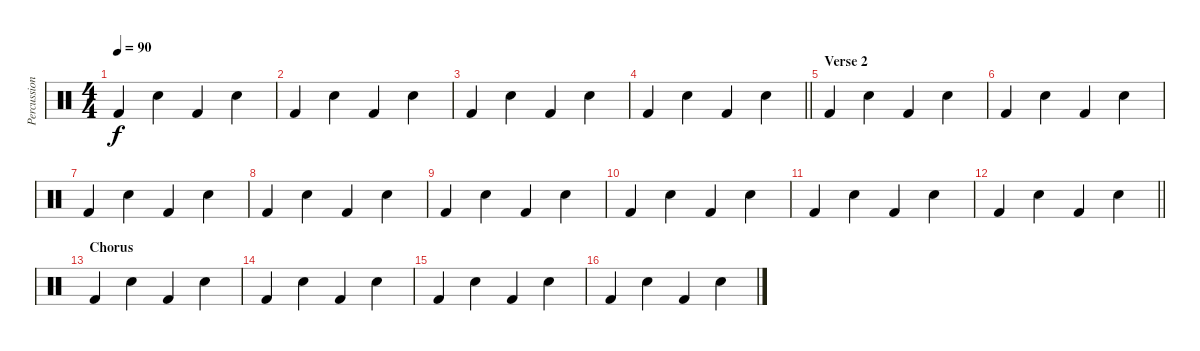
\track ("Percussion" "Percussion") {instrument percussion}
\staff {score}
\articulation defaults
\ts (4 4)
\tempo 90
\clef neutral
\ks c "Kick (hit) 2".4{dy f} "Snare (hit) 2".4 "Kick (hit) 2".4 "Snare (hit) 2".4
|
"Kick (hit) 2".4 "Snare (hit) 2".4 "Kick (hit) 2".4 "Snare (hit) 2".4 |
"Kick (hit) 2".4 "Snare (hit) 2".4 "Kick (hit) 2".4 "Snare (hit) 2".4 |
\barLineRight lightlight "Kick (hit) 2".4 "Snare (hit) 2".4 "Kick (hit) 2".4 "Snare (hit) 2".4
|
\section ("" "Verse 2")
"Kick (hit) 2".4 "Snare (hit) 2".4 "Kick (hit) 2".4 "Snare (hit) 2".4 |
"Kick (hit) 2".4 "Snare (hit) 2".4 "Kick (hit) 2".4 "Snare (hit) 2".4 |
"Kick (hit) 2".4 "Snare (hit) 2".4 "Kick (hit) 2".4 "Snare (hit) 2".4 |
"Kick (hit) 2".4 "Snare (hit) 2".4 "Kick (hit) 2".4 "Snare (hit) 2".4 |
"Kick (hit) 2".4 "Snare (hit) 2".4 "Kick (hit) 2".4 "Snare (hit) 2".4 |
"Kick (hit) 2".4 "Snare (hit) 2".4 "Kick (hit) 2".4 "Snare (hit) 2".4 |
"Kick (hit) 2".4 "Snare (hit) 2".4 "Kick (hit) 2".4 "Snare (hit) 2".4 |
\barLineRight lightlight "Kick (hit) 2".4 "Snare (hit) 2".4 "Kick (hit) 2".4 "Snare (hit) 2".4
|
\section ("" "Chorus")
"Kick (hit) 2".4 "Snare (hit) 2".4 "Kick (hit) 2".4 "Snare (hit) 2".4 |
"Kick (hit) 2".4 "Snare (hit) 2".4 "Kick (hit) 2".4 "Snare (hit) 2".4 |
"Kick (hit) 2".4 "Snare (hit) 2".4 "Kick (hit) 2".4 "Snare (hit) 2".4 |
"Kick (hit) 2".4 "Snare (hit) 2".4 "Kick (hit) 2".4 "Snare (hit) 2".4
